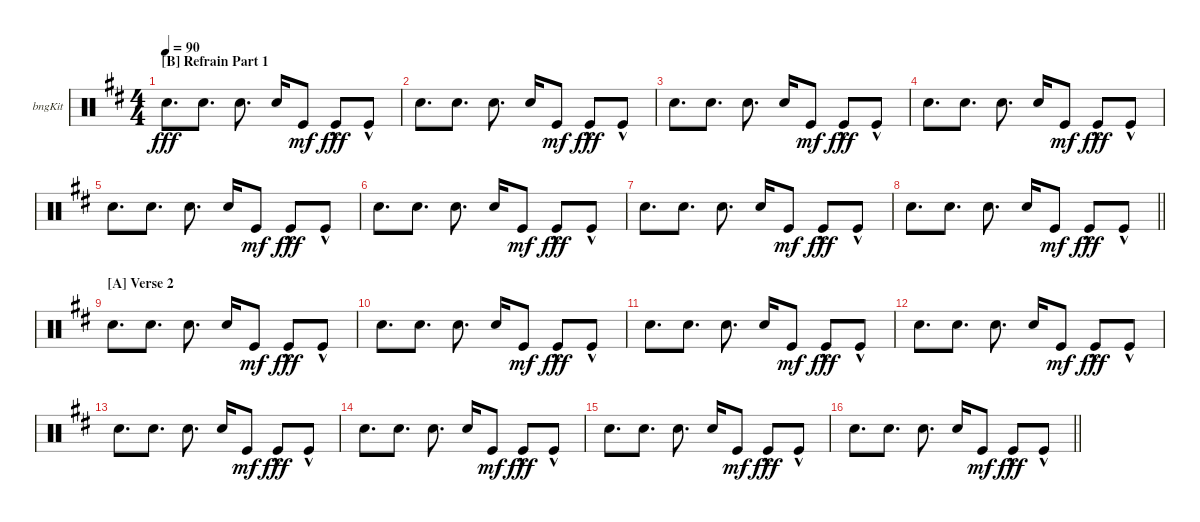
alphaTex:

\defaultSystemsLayout 4
\bracketExtendMode groupsimilarinstruments
\firstSystemTrackNameOrientation horizontal
\otherSystemsTrackNameOrientation horizontal
\track ("hi & lo synth drum" "bngKit") {instrument percussion}
\staff {score}
\articulation defaults
\ts (4 4)
\section ("B" "Refrain Part 1")
\tempo 90
\clef neutral
\scale
0.25
\ks d "Snare (hit) 2".8{d dy fff} "Snare (hit) 2".8{d} "Snare (hit) 2".8{d} "Snare (hit) 2".16 "Kick (hit)".8{dy mf} "Kick (hit)"{hac}.8{dy fff} "Kick (hit)"{hac}.8
|
\scale
0.25 "Snare (hit) 2".8{d} "Snare (hit) 2".8{d} "Snare (hit) 2".8{d} "Snare (hit) 2".16 "Kick (hit)".8{dy mf} "Kick (hit)"{hac}.8{dy fff} "Kick (hit)"{hac}.8 |
\scale
0.25 "Snare (hit) 2".8{d} "Snare (hit) 2".8{d} "Snare (hit) 2".8{d} "Snare (hit) 2".16 "Kick (hit)".8{dy mf} "Kick (hit)"{hac}.8{dy fff} "Kick (hit)"{hac}.8 |
\scale
0.25 "Snare (hit) 2".8{d} "Snare (hit) 2".8{d} "Snare (hit) 2".8{d} "Snare (hit) 2".16 "Kick (hit)".8{dy mf} "Kick (hit)"{hac}.8{dy fff} "Kick (hit)"{hac}.8 |
\scale
0.25 "Snare (hit) 2".8{d} "Snare (hit) 2".8{d} "Snare (hit) 2".8{d} "Snare (hit) 2".16 "Kick (hit)".8{dy mf} "Kick (hit)"{hac}.8{dy fff} "Kick (hit)"{hac}.8 |
\scale
0.25 "Snare (hit) 2".8{d} "Snare (hit) 2".8{d} "Snare (hit) 2".8{d} "Snare (hit) 2".16 "Kick (hit)".8{dy mf} "Kick (hit)"{hac}.8{dy fff} "Kick (hit)"{hac}.8 |
\scale
0.25 "Snare (hit) 2".8{d} "Snare (hit) 2".8{d} "Snare (hit) 2".8{d} "Snare (hit) 2".16 "Kick (hit)".8{dy mf} "Kick (hit)"{hac}.8{dy fff} "Kick (hit)"{hac}.8 |
\scale
0.25
\barLineRight lightlight "Snare (hit) 2".8{d} "Snare (hit) 2".8{d} "Snare (hit) 2".8{d} "Snare (hit) 2".16 "Kick (hit)".8{dy mf} "Kick (hit)"{hac}.8{dy fff} "Kick (hit)"{hac}.8
|
\section ("A" "Verse 2")
\scale
0.25 "Snare (hit) 2".8{d} "Snare (hit) 2".8{d} "Snare (hit) 2".8{d} "Snare (hit) 2".16 "Kick (hit)".8{dy mf} "Kick (hit)"{hac}.8{dy fff} "Kick (hit)"{hac}.8 |
\scale
0.25 "Snare (hit) 2".8{d} "Snare (hit) 2".8{d} "Snare (hit) 2".8{d} "Snare (hit) 2".16 "Kick (hit)".8{dy mf} "Kick (hit)"{hac}.8{dy fff} "Kick (hit)"{hac}.8 |
\scale
0.25 "Snare (hit) 2".8{d} "Snare (hit) 2".8{d} "Snare (hit) 2".8{d} "Snare (hit) 2".16 "Kick (hit)".8{dy mf} "Kick (hit)"{hac}.8{dy fff} "Kick (hit)"{hac}.8 |
\scale
0.25 "Snare (hit) 2".8{d} "Snare (hit) 2".8{d} "Snare (hit) 2".8{d} "Snare (hit) 2".16 "Kick (hit)".8{dy mf} "Kick (hit)"{hac}.8{dy fff} "Kick (hit)"{hac}.8 |
\scale
0.25 "Snare (hit) 2".8{d} "Snare (hit) 2".8{d} "Snare (hit) 2".8{d} "Snare (hit) 2".16 "Kick (hit)".8{dy mf} "Kick (hit)"{hac}.8{dy fff} "Kick (hit)"{hac}.8 |
\scale
0.25 "Snare (hit) 2".8{d} "Snare (hit) 2".8{d} "Snare (hit) 2".8{d} "Snare (hit) 2".16 "Kick (hit)".8{dy mf} "Kick (hit)"{hac}.8{dy fff} "Kick (hit)"{hac}.8 |
\scale
0.25 "Snare (hit) 2".8{d} "Snare (hit) 2".8{d} "Snare (hit) 2".8{d} "Snare (hit) 2".16 "Kick (hit)".8{dy mf} "Kick (hit)"{hac}.8{dy fff} "Kick (hit)"{hac}.8 |
\scale
0.25
\barLineRight lightlight "Snare (hit) 2".8{d} "Snare (hit) 2".8{d} "Snare (hit) 2".8{d} "Snare (hit) 2".16 "Kick (hit)".8{dy mf} "Kick (hit)"{hac}.8{dy fff} "Kick (hit)"{hac}.8
